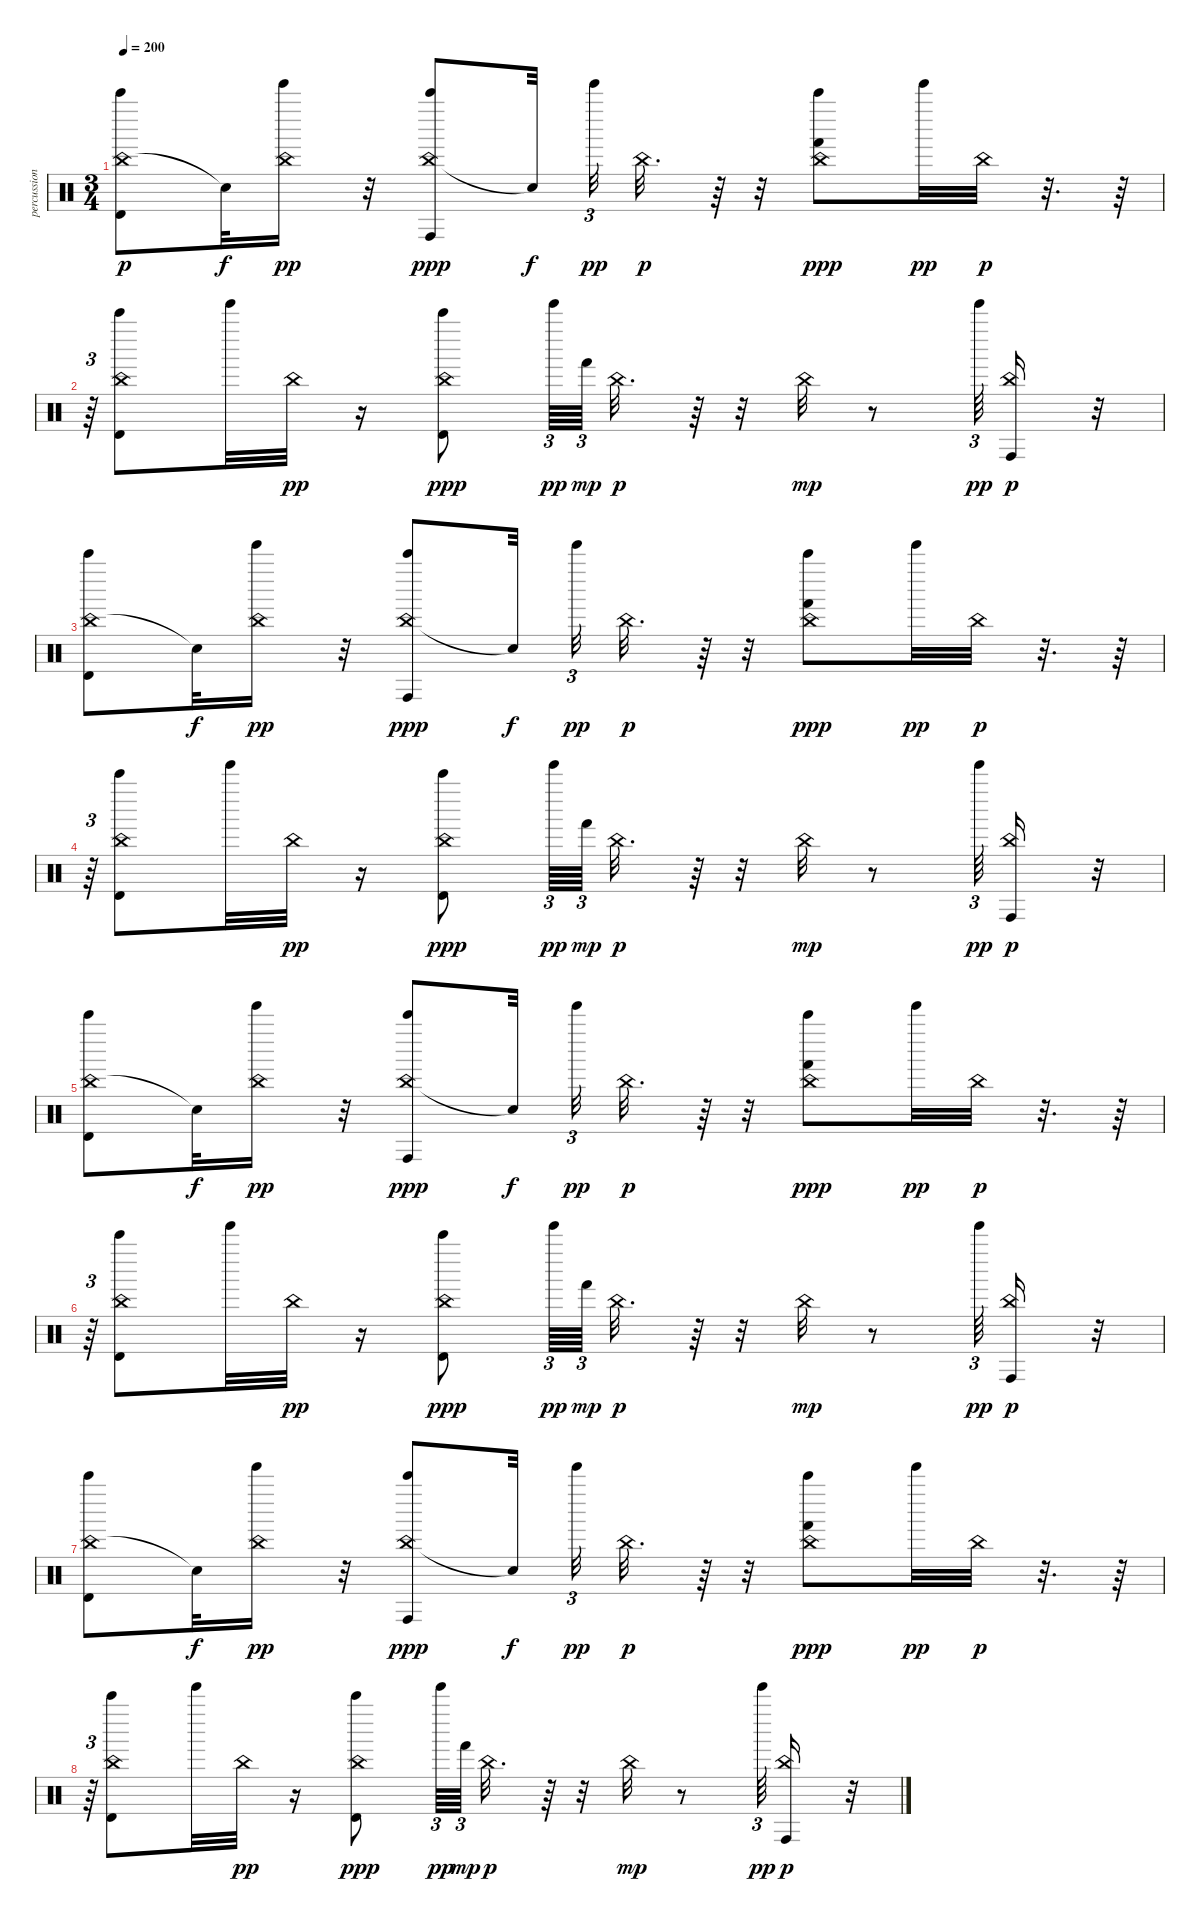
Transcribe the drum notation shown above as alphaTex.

\track ("percussion" "percussion") {instrument percussion}
\staff {score}
\articulation defaults
\ts (3 4)
\tempo 200
\clef neutral
\ks c
("China (hit)" "Timbale high (hit)" "Bell Tree (hit)").8{dy p} "Snare (hit)"{t}.32{dy f} ("Tinkle Bell (hit)" "China (hit)").16{dy pp} r.32 ("China (hit)" "Conga high (hit)" "Bell Tree (hit)").8{dy ppp} "Snare (hit)"{t}.32{dy f} "Tinkle Bell (hit)".32{tu (3 2) dy pp} "China (hit)".32{d dy p} r.64 r.32 ("China (hit)" "Hand (hit)" "Bell Tree (hit)").8{dy ppp} "Tinkle Bell (hit)".32{dy pp} "China (hit)".32{dy p} r.32{d} r.64 |
r.64{tu (3 2)} ("China (hit)" "Timbale high (hit)" "Bell Tree (hit)").8 "Tinkle Bell (hit)".32 "China (hit)".32{dy pp} r.16 ("China (hit)" "Timbale high (hit)" "Bell Tree (hit)").8{dy ppp} "Tinkle Bell (hit)".64{tu (3 2) dy pp} "Hand (hit)".64{tu (3 2) dy mp} "China (hit)".32{d dy p} r.64 r.32 "China (hit)".32{dy mp} r.8 "Tinkle Bell (hit)".64{tu (3 2) dy pp} ("Conga high (hit)" "China (hit)").16{dy p} r.32 |
("China (hit)" "Timbale high (hit)" "Bell Tree (hit)").8 "Snare (hit)"{t}.32{dy f} ("Tinkle Bell (hit)" "China (hit)").16{dy pp} r.32 ("China (hit)" "Conga high (hit)" "Bell Tree (hit)").8{dy ppp} "Snare (hit)"{t}.32{dy f} "Tinkle Bell (hit)".32{tu (3 2) dy pp} "China (hit)".32{d dy p} r.64 r.32 ("China (hit)" "Hand (hit)" "Bell Tree (hit)").8{dy ppp} "Tinkle Bell (hit)".32{dy pp} "China (hit)".32{dy p} r.32{d} r.64 |
r.64{tu (3 2)} ("China (hit)" "Timbale high (hit)" "Bell Tree (hit)").8 "Tinkle Bell (hit)".32 "China (hit)".32{dy pp} r.16 ("China (hit)" "Timbale high (hit)" "Bell Tree (hit)").8{dy ppp} "Tinkle Bell (hit)".64{tu (3 2) dy pp} "Hand (hit)".64{tu (3 2) dy mp} "China (hit)".32{d dy p} r.64 r.32 "China (hit)".32{dy mp} r.8 "Tinkle Bell (hit)".64{tu (3 2) dy pp} ("Conga high (hit)" "China (hit)").16{dy p} r.32 |
("China (hit)" "Timbale high (hit)" "Bell Tree (hit)").8 "Snare (hit)"{t}.32{dy f} ("Tinkle Bell (hit)" "China (hit)").16{dy pp} r.32 ("China (hit)" "Conga high (hit)" "Bell Tree (hit)").8{dy ppp} "Snare (hit)"{t}.32{dy f} "Tinkle Bell (hit)".32{tu (3 2) dy pp} "China (hit)".32{d dy p} r.64 r.32 ("China (hit)" "Hand (hit)" "Bell Tree (hit)").8{dy ppp} "Tinkle Bell (hit)".32{dy pp} "China (hit)".32{dy p} r.32{d} r.64 |
r.64{tu (3 2)} ("China (hit)" "Timbale high (hit)" "Bell Tree (hit)").8 "Tinkle Bell (hit)".32 "China (hit)".32{dy pp} r.16 ("China (hit)" "Timbale high (hit)" "Bell Tree (hit)").8{dy ppp} "Tinkle Bell (hit)".64{tu (3 2) dy pp} "Hand (hit)".64{tu (3 2) dy mp} "China (hit)".32{d dy p} r.64 r.32 "China (hit)".32{dy mp} r.8 "Tinkle Bell (hit)".64{tu (3 2) dy pp} ("Conga high (hit)" "China (hit)").16{dy p} r.32 |
("China (hit)" "Timbale high (hit)" "Bell Tree (hit)").8 "Snare (hit)"{t}.32{dy f} ("Tinkle Bell (hit)" "China (hit)").16{dy pp} r.32 ("China (hit)" "Conga high (hit)" "Bell Tree (hit)").8{dy ppp} "Snare (hit)"{t}.32{dy f} "Tinkle Bell (hit)".32{tu (3 2) dy pp} "China (hit)".32{d dy p} r.64 r.32 ("China (hit)" "Hand (hit)" "Bell Tree (hit)").8{dy ppp} "Tinkle Bell (hit)".32{dy pp} "China (hit)".32{dy p} r.32{d} r.64 |
r.64{tu (3 2)} ("China (hit)" "Timbale high (hit)" "Bell Tree (hit)").8 "Tinkle Bell (hit)".32 "China (hit)".32{dy pp} r.16 ("China (hit)" "Timbale high (hit)" "Bell Tree (hit)").8{dy ppp} "Tinkle Bell (hit)".64{tu (3 2) dy pp} "Hand (hit)".64{tu (3 2) dy mp} "China (hit)".32{d dy p} r.64 r.32 "China (hit)".32{dy mp} r.8 "Tinkle Bell (hit)".64{tu (3 2) dy pp} ("Conga high (hit)" "China (hit)").16{dy p} r.32
